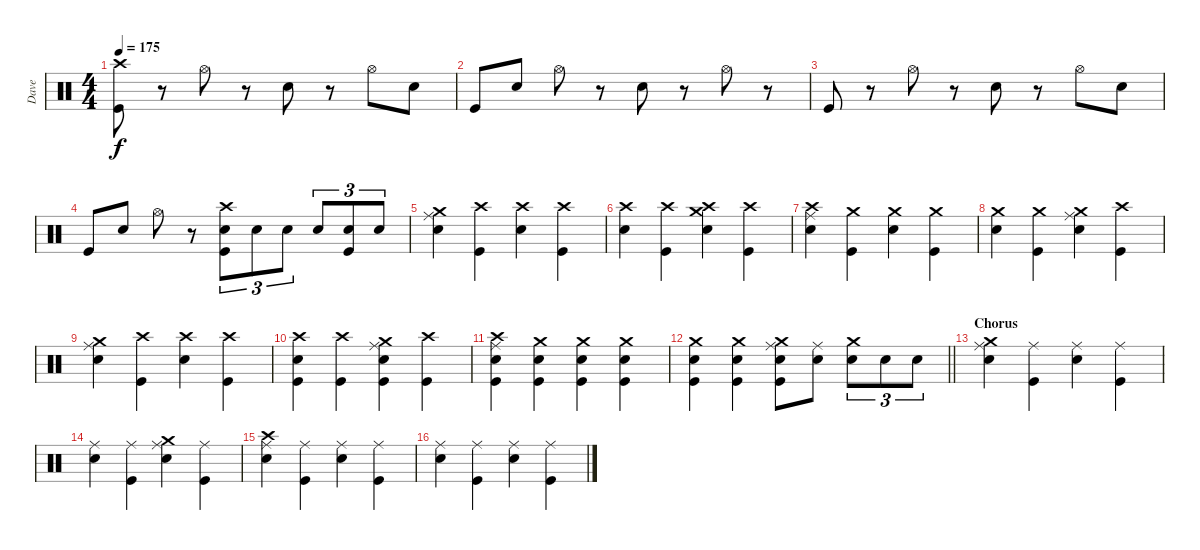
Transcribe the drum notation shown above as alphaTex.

\track ("Dave" "Dave") {instrument percussion}
\staff {score}
\articulation defaults
\ts (4 4)
\tempo 175
\clef neutral
\ks c
("Crash high (hit)" "Kick (hit)").8{dy f} r.8 "Hi-Hat (open)".8 r.8 "Snare (hit) 2".8 r.8 "Hi-Hat (open)".8 "Snare (hit) 2".8 |
"Kick (hit)".8 "Snare (hit) 2".8 "Hi-Hat (open)".8 r.8 "Snare (hit) 2".8 r.8 "Hi-Hat (open)".8 r.8 |
"Kick (hit)".8 r.8 "Hi-Hat (open)".8 r.8 "Snare (hit) 2".8 r.8 "Hi-Hat (open)".8 "Snare (hit) 2".8 |
"Kick (hit)".8 "Snare (hit) 2".8 "Hi-Hat (open)".8 r.8 ("Crash high (hit)" "Snare (hit) 2" "Kick (hit)").8{tu (3 2)} "Snare (hit) 2".8{tu (3 2)} "Snare (hit) 2".8{tu (3 2)} "Snare (hit) 2".8{tu (3 2)} ("Snare (hit) 2" "Kick (hit)").8{tu (3 2)} "Snare (hit) 2".8{tu (3 2)} |
("Crash medium (hit)" "Ride (middle)" "Snare (hit) 2").4 ("Crash high (hit)" "Kick (hit)").4 ("Crash high (hit)" "Snare (hit) 2").4 ("Crash high (hit)" "Kick (hit)").4 |
("Crash high (hit)" "Snare (hit) 2").4 ("Crash high (hit)" "Kick (hit)").4 ("Crash medium (hit)" "Crash high (hit)" "Snare (hit) 2").4 ("Crash high (hit)" "Kick (hit)").4 |
("Crash high (hit)" "Ride (middle)" "Snare (hit) 2").4 ("Crash medium (hit)" "Kick (hit)").4 ("Crash medium (hit)" "Snare (hit) 2").4 ("Crash medium (hit)" "Kick (hit)").4 |
("Crash medium (hit)" "Snare (hit) 2").4 ("Crash medium (hit)" "Kick (hit)").4 ("Crash medium (hit)" "Ride (middle)" "Snare (hit) 2").4 ("Crash high (hit)" "Kick (hit)").4 |
("Crash medium (hit)" "Ride (middle)" "Snare (hit) 2").4 ("Crash high (hit)" "Kick (hit)").4 ("Crash high (hit)" "Snare (hit) 2").4 ("Crash high (hit)" "Kick (hit)").4 |
("Crash high (hit)" "Snare (hit) 2" "Kick (hit)").4 ("Crash high (hit)" "Kick (hit)").4 ("Crash medium (hit)" "Ride (middle)" "Snare (hit) 2" "Kick (hit)").4 ("Crash high (hit)" "Kick (hit)").4 |
("Crash high (hit)" "Ride (middle)" "Snare (hit) 2" "Kick (hit)").4 ("Crash medium (hit)" "Snare (hit) 2" "Kick (hit)").4 ("Crash medium (hit)" "Snare (hit) 2" "Kick (hit)").4 ("Crash medium (hit)" "Snare (hit) 2" "Kick (hit)").4 |
\barLineRight lightlight
("Crash medium (hit)" "Snare (hit) 2" "Kick (hit)").4 ("Crash medium (hit)" "Snare (hit) 2" "Kick (hit)").4 ("Crash medium (hit)" "Ride (middle)" "Snare (hit) 2" "Kick (hit)").8 ("Ride (middle)" "Snare (hit) 2").8 ("Crash medium (hit)" "Snare (hit) 2").8{tu (3 2)} "Snare (hit) 2".8{tu (3 2)} "Snare (hit) 2".8{tu (3 2)} |
\section ("" "Chorus")
("Crash medium (hit)" "Ride (middle)" "Snare (hit) 2").4 ("Ride (middle)" "Kick (hit)").4 ("Ride (middle)" "Snare (hit) 2").4 ("Ride (middle)" "Kick (hit)").4 |
("Ride (middle)" "Snare (hit) 2").4 ("Ride (middle)" "Kick (hit)").4 ("Crash medium (hit)" "Ride (middle)" "Snare (hit) 2").4 ("Ride (middle)" "Kick (hit)").4 |
("Crash high (hit)" "Ride (middle)" "Snare (hit) 2").4 ("Ride (middle)" "Kick (hit)").4 ("Ride (middle)" "Snare (hit) 2").4 ("Ride (middle)" "Kick (hit)").4 |
("Ride (middle)" "Snare (hit) 2").4 ("Ride (middle)" "Kick (hit)").4 ("Ride (middle)" "Snare (hit) 2").4 ("Ride (middle)" "Kick (hit)").4
